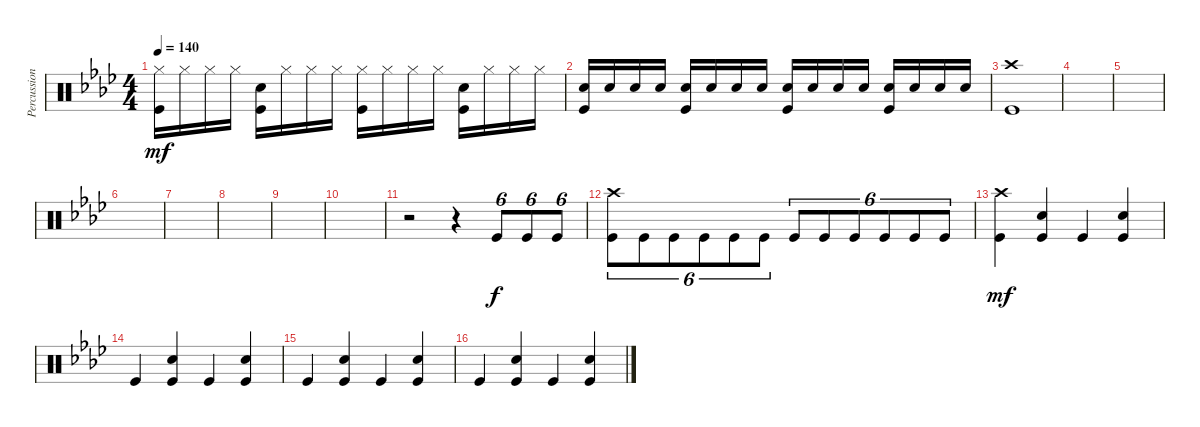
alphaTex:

\track ("Percussion" "Percussion") {instrument percussion}
\staff {score}
\articulation defaults
\ts (4 4)
\tempo 140
\clef neutral
\ks ab
("Hi-Hat (closed)" "Kick (hit)").16{dy mf} "Hi-Hat (closed)".16 "Hi-Hat (closed)".16 "Hi-Hat (closed)".16 ("Snare (hit) 2" "Kick (hit)").16 "Hi-Hat (closed)".16 "Hi-Hat (closed)".16 "Hi-Hat (closed)".16 ("Hi-Hat (closed)" "Kick (hit)").16 "Hi-Hat (closed)".16 "Hi-Hat (closed)".16 "Hi-Hat (closed)".16 ("Snare (hit) 2" "Kick (hit)").16 "Hi-Hat (closed)".16 "Hi-Hat (closed)".16 "Hi-Hat (closed)".16 |
("Snare (hit) 2" "Kick (hit)").16 "Snare (hit) 2".16 "Snare (hit) 2".16 "Snare (hit) 2".16 ("Snare (hit) 2" "Kick (hit)").16 "Snare (hit) 2".16 "Snare (hit) 2".16 "Snare (hit) 2".16 ("Snare (hit) 2" "Kick (hit)").16 "Snare (hit) 2".16 "Snare (hit) 2".16 "Snare (hit) 2".16 ("Snare (hit) 2" "Kick (hit)").16 "Snare (hit) 2".16 "Snare (hit) 2".16 "Snare (hit) 2".16 |
("Crash high (hit)" "Kick (hit)").1 |
|
|
|
|
|
|
|
r.2 r.4 "Kick (hit)".8{tu (6 4) dy f} "Kick (hit)".8{tu (6 4)} "Kick (hit)".8{tu (6 4)} |
("Crash high (hit)" "Kick (hit)").8{tu (6 4)} "Kick (hit)".8{tu (6 4)} "Kick (hit)".8{tu (6 4)} "Kick (hit)".8{tu (6 4)} "Kick (hit)".8{tu (6 4)} "Kick (hit)".8{tu (6 4)} "Kick (hit)".8{tu (6 4)} "Kick (hit)".8{tu (6 4)} "Kick (hit)".8{tu (6 4)} "Kick (hit)".8{tu (6 4)} "Kick (hit)".8{tu (6 4)} "Kick (hit)".8{tu (6 4)} |
("Kick (hit)" "Crash high (hit)").4{dy mf} ("Snare (hit) 2" "Kick (hit)").4 "Kick (hit)".4 ("Snare (hit) 2" "Kick (hit)").4 |
"Kick (hit)".4 ("Snare (hit) 2" "Kick (hit)").4 "Kick (hit)".4 ("Snare (hit) 2" "Kick (hit)").4 |
"Kick (hit)".4 ("Snare (hit) 2" "Kick (hit)").4 "Kick (hit)".4 ("Snare (hit) 2" "Kick (hit)").4 |
"Kick (hit)".4 ("Snare (hit) 2" "Kick (hit)").4 "Kick (hit)".4 ("Snare (hit) 2" "Kick (hit)").4
